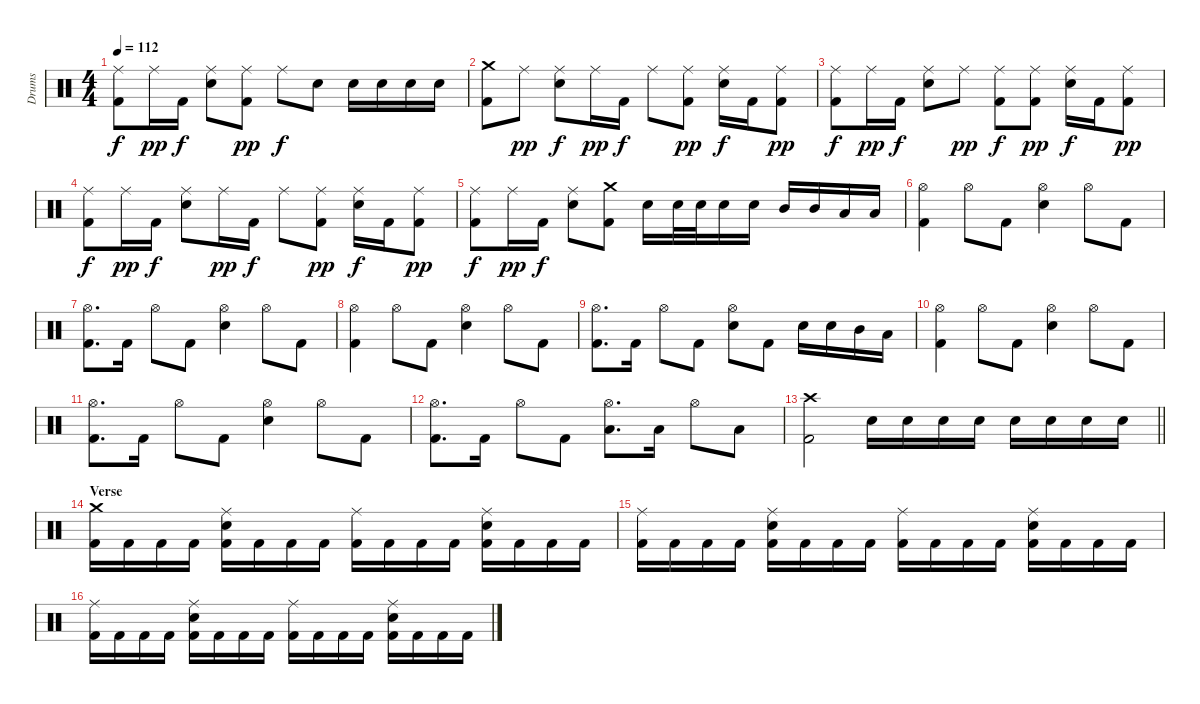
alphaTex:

\track ("Drums" "Drums") {instrument percussion}
\staff {score}
\articulation defaults
\ts (4 4)
\tempo 112
\clef neutral
\ks c
("Ride (middle)" "Kick (hit) 2").8{dy f} "Ride (middle)".16{dy pp} "Kick (hit) 2".16{dy f} ("Ride (middle)" "Electric Snare (hit)").8 ("Ride (middle)" "Kick (hit) 2").8{dy pp} "Ride (middle)".8{dy f} "Electric Snare (hit)".8 "Electric Snare (hit)".16 "Electric Snare (hit)".16 "Electric Snare (hit)".16 "Electric Snare (hit)".16 |
("Crash medium (hit)" "Kick (hit) 2").8 "Ride (middle)".8{dy pp} ("Ride (middle)" "Electric Snare (hit)").8{dy f} "Ride (middle)".16{dy pp} "Kick (hit) 2".16{dy f} "Ride (middle)".8 ("Ride (middle)" "Kick (hit) 2").8{dy pp} ("Ride (middle)" "Electric Snare (hit)").16{dy f} "Kick (hit) 2".16 ("Ride (middle)" "Kick (hit) 2").8{dy pp} |
("Ride (middle)" "Kick (hit) 2").8{dy f} "Ride (middle)".16{dy pp} "Kick (hit) 2".16{dy f} ("Ride (middle)" "Electric Snare (hit)").8 "Ride (middle)".8{dy pp} ("Ride (middle)" "Kick (hit) 2").8{dy f} ("Ride (middle)" "Kick (hit) 2").8{dy pp} ("Ride (middle)" "Electric Snare (hit)").16{dy f} "Kick (hit) 2".16 ("Ride (middle)" "Kick (hit) 2").8{dy pp} |
("Ride (middle)" "Kick (hit) 2").8{dy f} "Ride (middle)".16{dy pp} "Kick (hit) 2".16{dy f} ("Ride (middle)" "Electric Snare (hit)").8 "Ride (middle)".16{dy pp} "Kick (hit) 2".16{dy f} "Ride (middle)".8 ("Ride (middle)" "Kick (hit) 2").8{dy pp} ("Ride (middle)" "Electric Snare (hit)").16{dy f} "Kick (hit) 2".16 ("Ride (middle)" "Kick (hit) 2").8{dy pp} |
("Ride (middle)" "Kick (hit) 2").8{dy f} "Ride (middle)".16{dy pp} "Kick (hit) 2".16{dy f} ("Ride (middle)" "Electric Snare (hit)").8 ("Crash medium (hit)" "Kick (hit) 2").8 "Electric Snare (hit)".16 "Electric Snare (hit)".32 "Electric Snare (hit)".32 "Electric Snare (hit)".16 "Electric Snare (hit)".16 "Mid Tom (hit)".16 "Mid Tom (hit)".16 "Low Tom (hit)".16 "Low Tom (hit)".16 |
("Hi-Hat (open)" "Kick (hit) 2").4 "Hi-Hat (open)".8 "Kick (hit) 2".8 ("Hi-Hat (open)" "Electric Snare (hit)").4 "Hi-Hat (open)".8 "Kick (hit) 2".8 |
("Hi-Hat (open)" "Kick (hit) 2").8{d} "Kick (hit) 2".16 "Hi-Hat (open)".8 "Kick (hit) 2".8 ("Hi-Hat (open)" "Electric Snare (hit)").4 "Hi-Hat (open)".8 "Kick (hit) 2".8 |
("Hi-Hat (open)" "Kick (hit) 2").4 "Hi-Hat (open)".8 "Kick (hit) 2".8 ("Hi-Hat (open)" "Electric Snare (hit)").4 "Hi-Hat (open)".8 "Kick (hit) 2".8 |
("Hi-Hat (open)" "Kick (hit) 2").8{d} "Kick (hit) 2".16 "Hi-Hat (open)".8 "Kick (hit) 2".8 ("Hi-Hat (open)" "Electric Snare (hit)").8 "Kick (hit) 2".8 "Electric Snare (hit)".16 "Electric Snare (hit)".16 "Mid Tom (hit)".16 "Low Tom (hit)".16 |
("Hi-Hat (open)" "Kick (hit) 2").4 "Hi-Hat (open)".8 "Kick (hit) 2".8 ("Hi-Hat (open)" "Electric Snare (hit)").4 "Hi-Hat (open)".8 "Kick (hit) 2".8 |
("Hi-Hat (open)" "Kick (hit) 2").8{d} "Kick (hit) 2".16 "Hi-Hat (open)".8 "Kick (hit) 2".8 ("Hi-Hat (open)" "Electric Snare (hit)").4 "Hi-Hat (open)".8 "Kick (hit) 2".8 |
("Hi-Hat (open)" "Kick (hit) 2").8{d} "Kick (hit) 2".16 "Hi-Hat (open)".8 "Kick (hit) 2".8 ("Hi-Hat (open)" "Low Tom (hit)").8{d} "Low Tom (hit)".16 "Hi-Hat (open)".8 "Low Tom (hit)".8 |
\barLineRight lightlight
("Crash high (hit)" "Kick (hit) 2").2 "Electric Snare (hit)".16 "Electric Snare (hit)".16 "Electric Snare (hit)".16 "Electric Snare (hit)".16 "Electric Snare (hit)".16 "Electric Snare (hit)".16 "Electric Snare (hit)".16 "Electric Snare (hit)".16 |
\section ("" "Verse")
("Crash medium (hit)" "Kick (hit) 2").16 "Kick (hit) 2".16 "Kick (hit) 2".16 "Kick (hit) 2".16 ("Ride (middle)" "Electric Snare (hit)" "Kick (hit) 2").16 "Kick (hit) 2".16 "Kick (hit) 2".16 "Kick (hit) 2".16 ("Ride (middle)" "Kick (hit) 2").16 "Kick (hit) 2".16 "Kick (hit) 2".16 "Kick (hit) 2".16 ("Ride (middle)" "Electric Snare (hit)" "Kick (hit) 2").16 "Kick (hit) 2".16 "Kick (hit) 2".16 "Kick (hit) 2".16 |
("Ride (middle)" "Kick (hit) 2").16 "Kick (hit) 2".16 "Kick (hit) 2".16 "Kick (hit) 2".16 ("Ride (middle)" "Electric Snare (hit)" "Kick (hit) 2").16 "Kick (hit) 2".16 "Kick (hit) 2".16 "Kick (hit) 2".16 ("Ride (middle)" "Kick (hit) 2").16 "Kick (hit) 2".16 "Kick (hit) 2".16 "Kick (hit) 2".16 ("Ride (middle)" "Electric Snare (hit)" "Kick (hit) 2").16 "Kick (hit) 2".16 "Kick (hit) 2".16 "Kick (hit) 2".16 |
("Ride (middle)" "Kick (hit) 2").16 "Kick (hit) 2".16 "Kick (hit) 2".16 "Kick (hit) 2".16 ("Ride (middle)" "Electric Snare (hit)" "Kick (hit) 2").16 "Kick (hit) 2".16 "Kick (hit) 2".16 "Kick (hit) 2".16 ("Ride (middle)" "Kick (hit) 2").16 "Kick (hit) 2".16 "Kick (hit) 2".16 "Kick (hit) 2".16 ("Ride (middle)" "Electric Snare (hit)" "Kick (hit) 2").16 "Kick (hit) 2".16 "Kick (hit) 2".16 "Kick (hit) 2".16
